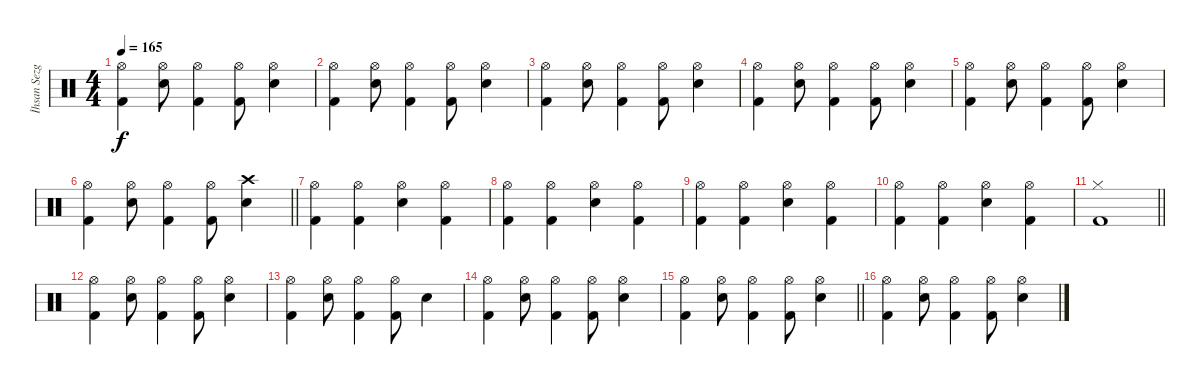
\track ("İhsan Sezgin" "İhsan Sezg") {instrument percussion}
\staff {score}
\articulation defaults
\ts (4 4)
\tempo 165
\clef neutral
\ks c
("Hi-Hat (open)" "Kick (hit) 2").4{dy f} ("Hi-Hat (open)" "Snare (hit) 2").8 ("Hi-Hat (open)" "Kick (hit) 2").4 ("Hi-Hat (open)" "Kick (hit) 2").8 ("Hi-Hat (open)" "Snare (hit) 2").4 |
("Hi-Hat (open)" "Kick (hit) 2").4 ("Hi-Hat (open)" "Snare (hit) 2").8 ("Hi-Hat (open)" "Kick (hit) 2").4 ("Hi-Hat (open)" "Kick (hit) 2").8 ("Hi-Hat (open)" "Snare (hit) 2").4 |
("Hi-Hat (open)" "Kick (hit) 2").4 ("Hi-Hat (open)" "Snare (hit) 2").8 ("Hi-Hat (open)" "Kick (hit) 2").4 ("Hi-Hat (open)" "Kick (hit) 2").8 ("Hi-Hat (open)" "Snare (hit) 2").4 |
("Hi-Hat (open)" "Kick (hit) 2").4 ("Hi-Hat (open)" "Snare (hit) 2").8 ("Hi-Hat (open)" "Kick (hit) 2").4 ("Hi-Hat (open)" "Kick (hit) 2").8 ("Hi-Hat (open)" "Snare (hit) 2").4 |
("Hi-Hat (open)" "Kick (hit) 2").4 ("Hi-Hat (open)" "Snare (hit) 2").8 ("Hi-Hat (open)" "Kick (hit) 2").4 ("Hi-Hat (open)" "Kick (hit) 2").8 ("Hi-Hat (open)" "Snare (hit) 2").4 |
\barLineRight lightlight
("Hi-Hat (open)" "Kick (hit) 2").4 ("Hi-Hat (open)" "Snare (hit) 2").8 ("Hi-Hat (open)" "Kick (hit) 2").4 ("Hi-Hat (open)" "Kick (hit) 2").8 ("Crash high (hit)" "Snare (hit) 2").4 |
("Hi-Hat (open)" "Kick (hit) 2").4 ("Hi-Hat (open)" "Kick (hit) 2").4 ("Hi-Hat (open)" "Snare (hit) 2").4 ("Hi-Hat (open)" "Kick (hit) 2").4 |
("Hi-Hat (open)" "Kick (hit) 2").4 ("Hi-Hat (open)" "Kick (hit) 2").4 ("Hi-Hat (open)" "Snare (hit) 2").4 ("Hi-Hat (open)" "Kick (hit) 2").4 |
("Hi-Hat (open)" "Kick (hit) 2").4 ("Hi-Hat (open)" "Kick (hit) 2").4 ("Hi-Hat (open)" "Snare (hit) 2").4 ("Hi-Hat (open)" "Kick (hit) 2").4 |
("Hi-Hat (open)" "Kick (hit) 2").4 ("Hi-Hat (open)" "Kick (hit) 2").4 ("Hi-Hat (open)" "Snare (hit) 2").4 ("Hi-Hat (open)" "Kick (hit) 2").4 |
\barLineRight lightlight
("Hi-Hat (closed)" "Kick (hit) 2").1 |
("Hi-Hat (open)" "Kick (hit) 2").4 ("Snare (hit) 2" "Hi-Hat (open)").8 ("Hi-Hat (open)" "Kick (hit) 2").4 ("Hi-Hat (open)" "Kick (hit) 2").8 ("Snare (hit) 2" "Hi-Hat (open)").4 |
("Hi-Hat (open)" "Kick (hit) 2").4 ("Snare (hit) 2" "Hi-Hat (open)").8 ("Hi-Hat (open)" "Kick (hit) 2").4 ("Hi-Hat (open)" "Kick (hit) 2").8 "Snare (hit) 2".4 |
("Hi-Hat (open)" "Kick (hit) 2").4 ("Snare (hit) 2" "Hi-Hat (open)").8 ("Hi-Hat (open)" "Kick (hit) 2").4 ("Hi-Hat (open)" "Kick (hit) 2").8 ("Snare (hit) 2" "Hi-Hat (open)").4 |
\barLineRight lightlight
("Hi-Hat (open)" "Kick (hit) 2").4 ("Snare (hit) 2" "Hi-Hat (open)").8 ("Hi-Hat (open)" "Kick (hit) 2").4 ("Hi-Hat (open)" "Kick (hit) 2").8 ("Snare (hit) 2" "Hi-Hat (open)").4 |
("Hi-Hat (open)" "Kick (hit) 2").4 ("Snare (hit) 2" "Hi-Hat (open)").8 ("Hi-Hat (open)" "Kick (hit) 2").4 ("Hi-Hat (open)" "Kick (hit) 2").8 ("Snare (hit) 2" "Hi-Hat (open)").4
